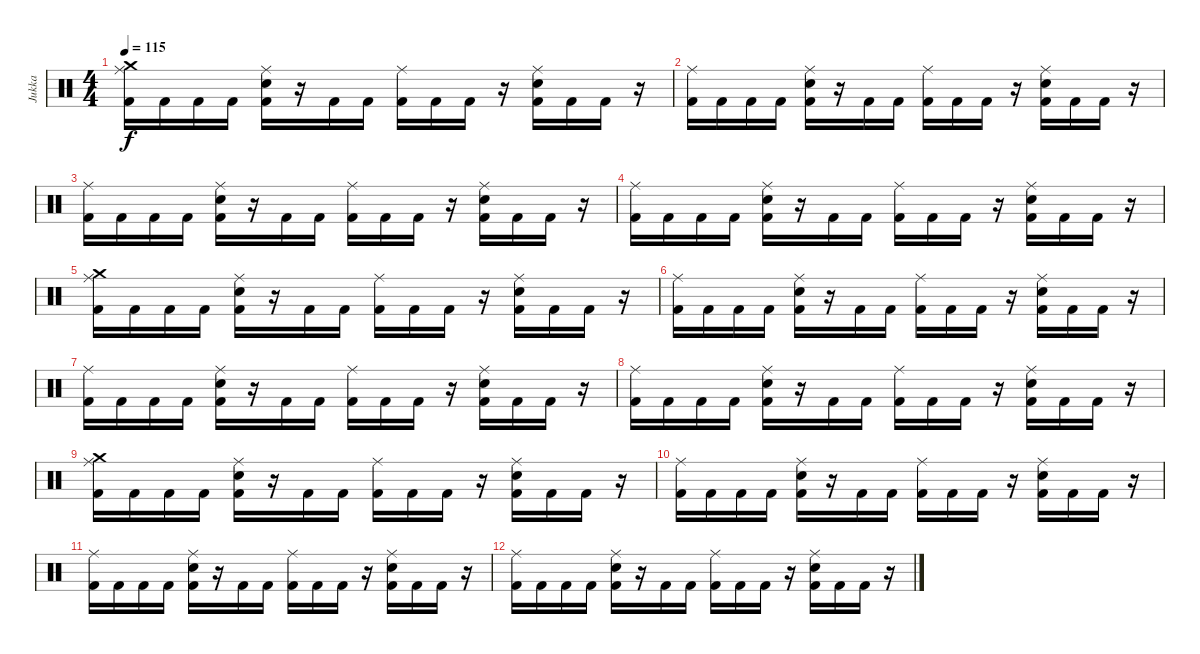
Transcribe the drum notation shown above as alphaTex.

\track ("Jukka" "Jukka") {instrument percussion}
\staff {score}
\articulation defaults
\ts (4 4)
\tempo 115
\clef neutral
\ks c
("Crash medium (hit)" "Ride (middle)" "Kick (hit) 2").16{dy f} "Kick (hit) 2".16 "Kick (hit) 2".16 "Kick (hit) 2".16 ("Ride (middle)" "Electric Snare (hit)" "Kick (hit) 2").16 r.16 "Kick (hit) 2".16 "Kick (hit) 2".16 ("Ride (middle)" "Kick (hit) 2").16 "Kick (hit) 2".16 "Kick (hit) 2".16 r.16 ("Ride (middle)" "Electric Snare (hit)" "Kick (hit) 2").16 "Kick (hit) 2".16 "Kick (hit) 2".16 r.16 |
("Ride (middle)" "Kick (hit) 2").16 "Kick (hit) 2".16 "Kick (hit) 2".16 "Kick (hit) 2".16 ("Ride (middle)" "Electric Snare (hit)" "Kick (hit) 2").16 r.16 "Kick (hit) 2".16 "Kick (hit) 2".16 ("Ride (middle)" "Kick (hit) 2").16 "Kick (hit) 2".16 "Kick (hit) 2".16 r.16 ("Ride (middle)" "Electric Snare (hit)" "Kick (hit) 2").16 "Kick (hit) 2".16 "Kick (hit) 2".16 r.16 |
("Ride (middle)" "Kick (hit) 2").16 "Kick (hit) 2".16 "Kick (hit) 2".16 "Kick (hit) 2".16 ("Ride (middle)" "Electric Snare (hit)" "Kick (hit) 2").16 r.16 "Kick (hit) 2".16 "Kick (hit) 2".16 ("Ride (middle)" "Kick (hit) 2").16 "Kick (hit) 2".16 "Kick (hit) 2".16 r.16 ("Ride (middle)" "Electric Snare (hit)" "Kick (hit) 2").16 "Kick (hit) 2".16 "Kick (hit) 2".16 r.16 |
("Ride (middle)" "Kick (hit) 2").16 "Kick (hit) 2".16 "Kick (hit) 2".16 "Kick (hit) 2".16 ("Ride (middle)" "Electric Snare (hit)" "Kick (hit) 2").16 r.16 "Kick (hit) 2".16 "Kick (hit) 2".16 ("Ride (middle)" "Kick (hit) 2").16 "Kick (hit) 2".16 "Kick (hit) 2".16 r.16 ("Ride (middle)" "Electric Snare (hit)" "Kick (hit) 2").16 "Kick (hit) 2".16 "Kick (hit) 2".16 r.16 |
("Crash medium (hit)" "Ride (middle)" "Kick (hit) 2").16 "Kick (hit) 2".16 "Kick (hit) 2".16 "Kick (hit) 2".16 ("Ride (middle)" "Electric Snare (hit)" "Kick (hit) 2").16 r.16 "Kick (hit) 2".16 "Kick (hit) 2".16 ("Ride (middle)" "Kick (hit) 2").16 "Kick (hit) 2".16 "Kick (hit) 2".16 r.16 ("Ride (middle)" "Electric Snare (hit)" "Kick (hit) 2").16 "Kick (hit) 2".16 "Kick (hit) 2".16 r.16 |
("Ride (middle)" "Kick (hit) 2").16 "Kick (hit) 2".16 "Kick (hit) 2".16 "Kick (hit) 2".16 ("Ride (middle)" "Electric Snare (hit)" "Kick (hit) 2").16 r.16 "Kick (hit) 2".16 "Kick (hit) 2".16 ("Ride (middle)" "Kick (hit) 2").16 "Kick (hit) 2".16 "Kick (hit) 2".16 r.16 ("Ride (middle)" "Electric Snare (hit)" "Kick (hit) 2").16 "Kick (hit) 2".16 "Kick (hit) 2".16 r.16 |
("Ride (middle)" "Kick (hit) 2").16 "Kick (hit) 2".16 "Kick (hit) 2".16 "Kick (hit) 2".16 ("Ride (middle)" "Electric Snare (hit)" "Kick (hit) 2").16 r.16 "Kick (hit) 2".16 "Kick (hit) 2".16 ("Ride (middle)" "Kick (hit) 2").16 "Kick (hit) 2".16 "Kick (hit) 2".16 r.16 ("Ride (middle)" "Electric Snare (hit)" "Kick (hit) 2").16 "Kick (hit) 2".16 "Kick (hit) 2".16 r.16 |
("Ride (middle)" "Kick (hit) 2").16 "Kick (hit) 2".16 "Kick (hit) 2".16 "Kick (hit) 2".16 ("Ride (middle)" "Electric Snare (hit)" "Kick (hit) 2").16 r.16 "Kick (hit) 2".16 "Kick (hit) 2".16 ("Ride (middle)" "Kick (hit) 2").16 "Kick (hit) 2".16 "Kick (hit) 2".16 r.16 ("Ride (middle)" "Electric Snare (hit)" "Kick (hit) 2").16 "Kick (hit) 2".16 "Kick (hit) 2".16 r.16 |
("Crash medium (hit)" "Ride (middle)" "Kick (hit) 2").16 "Kick (hit) 2".16 "Kick (hit) 2".16 "Kick (hit) 2".16 ("Ride (middle)" "Electric Snare (hit)" "Kick (hit) 2").16 r.16 "Kick (hit) 2".16 "Kick (hit) 2".16 ("Ride (middle)" "Kick (hit) 2").16 "Kick (hit) 2".16 "Kick (hit) 2".16 r.16 ("Ride (middle)" "Electric Snare (hit)" "Kick (hit) 2").16 "Kick (hit) 2".16 "Kick (hit) 2".16 r.16 |
("Ride (middle)" "Kick (hit) 2").16 "Kick (hit) 2".16 "Kick (hit) 2".16 "Kick (hit) 2".16 ("Ride (middle)" "Electric Snare (hit)" "Kick (hit) 2").16 r.16 "Kick (hit) 2".16 "Kick (hit) 2".16 ("Ride (middle)" "Kick (hit) 2").16 "Kick (hit) 2".16 "Kick (hit) 2".16 r.16 ("Ride (middle)" "Electric Snare (hit)" "Kick (hit) 2").16 "Kick (hit) 2".16 "Kick (hit) 2".16 r.16 |
("Ride (middle)" "Kick (hit) 2").16 "Kick (hit) 2".16 "Kick (hit) 2".16 "Kick (hit) 2".16 ("Ride (middle)" "Electric Snare (hit)" "Kick (hit) 2").16 r.16 "Kick (hit) 2".16 "Kick (hit) 2".16 ("Ride (middle)" "Kick (hit) 2").16 "Kick (hit) 2".16 "Kick (hit) 2".16 r.16 ("Ride (middle)" "Electric Snare (hit)" "Kick (hit) 2").16 "Kick (hit) 2".16 "Kick (hit) 2".16 r.16 |
("Ride (middle)" "Kick (hit) 2").16 "Kick (hit) 2".16 "Kick (hit) 2".16 "Kick (hit) 2".16 ("Ride (middle)" "Electric Snare (hit)" "Kick (hit) 2").16 r.16 "Kick (hit) 2".16 "Kick (hit) 2".16 ("Ride (middle)" "Kick (hit) 2").16 "Kick (hit) 2".16 "Kick (hit) 2".16 r.16 ("Ride (middle)" "Electric Snare (hit)" "Kick (hit) 2").16 "Kick (hit) 2".16 "Kick (hit) 2".16 r.16
